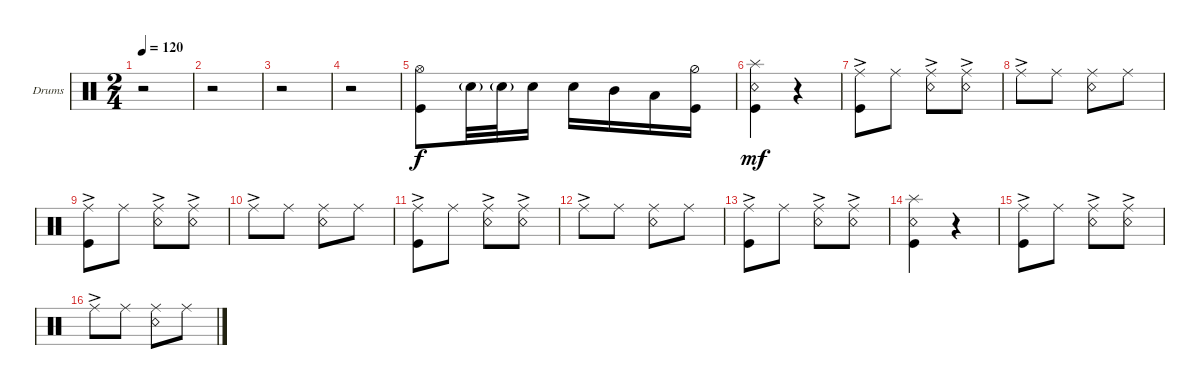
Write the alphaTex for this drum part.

\defaultSystemsLayout 4
\bracketExtendMode groupsimilarinstruments
\firstSystemTrackNameOrientation horizontal
\otherSystemsTrackNameOrientation horizontal
\track ("Drumkit" "Drums") {instrument percussion}
\staff {score}
\articulation defaults
\ts (2 4)
\tempo 120
\clef neutral
\ks c
r.2{dy f} |
r.2 |
r.2 |
r.2 |
("Hi-Hat (open)" "Kick (hit)").8 "Snare (hit) 2"{g}.32 "Snare (hit) 2"{g}.32 "Snare (hit) 2".16 "Snare (hit) 2".16 "Mid Tom (hit)".16 "Low Tom (hit)".16 ("Kick (hit)" "Hi-Hat (half)").16 |
("Kick (hit)" "Snare (rim shot)" "Splash (hit)").4{dy mf} r.4 |
("Ride (middle)"{ac} "Kick (hit)").8 "Ride (middle)".8 ("Ride (middle)" "Snare (rim shot)"{ac}).8 ("Ride (middle)" "Snare (rim shot)"{ac}).8 |
"Ride (middle)"{ac}.8 "Ride (middle)".8 ("Ride (middle)" "Snare (rim shot)").8 "Ride (middle)".8 |
("Ride (middle)"{ac} "Kick (hit)").8 "Ride (middle)".8 ("Ride (middle)" "Snare (rim shot)"{ac}).8 ("Ride (middle)" "Snare (rim shot)"{ac}).8 |
"Ride (middle)"{ac}.8 "Ride (middle)".8 ("Ride (middle)" "Snare (rim shot)").8 "Ride (middle)".8 |
("Ride (middle)"{ac} "Kick (hit)").8 "Ride (middle)".8 ("Ride (middle)" "Snare (rim shot)"{ac}).8 ("Ride (middle)" "Snare (rim shot)"{ac}).8 |
"Ride (middle)"{ac}.8 "Ride (middle)".8 ("Ride (middle)" "Snare (rim shot)").8 "Ride (middle)".8 |
("Ride (middle)"{ac} "Kick (hit)").8 "Ride (middle)".8 ("Ride (middle)" "Snare (rim shot)"{ac}).8 ("Ride (middle)" "Snare (rim shot)"{ac}).8 |
("Kick (hit)" "Snare (rim shot)" "Splash (hit)").4 r.4 |
("Ride (middle)"{ac} "Kick (hit)").8 "Ride (middle)".8 ("Ride (middle)" "Snare (rim shot)"{ac}).8 ("Ride (middle)" "Snare (rim shot)"{ac}).8 |
"Ride (middle)"{ac}.8 "Ride (middle)".8 ("Ride (middle)" "Snare (rim shot)").8 "Ride (middle)".8
